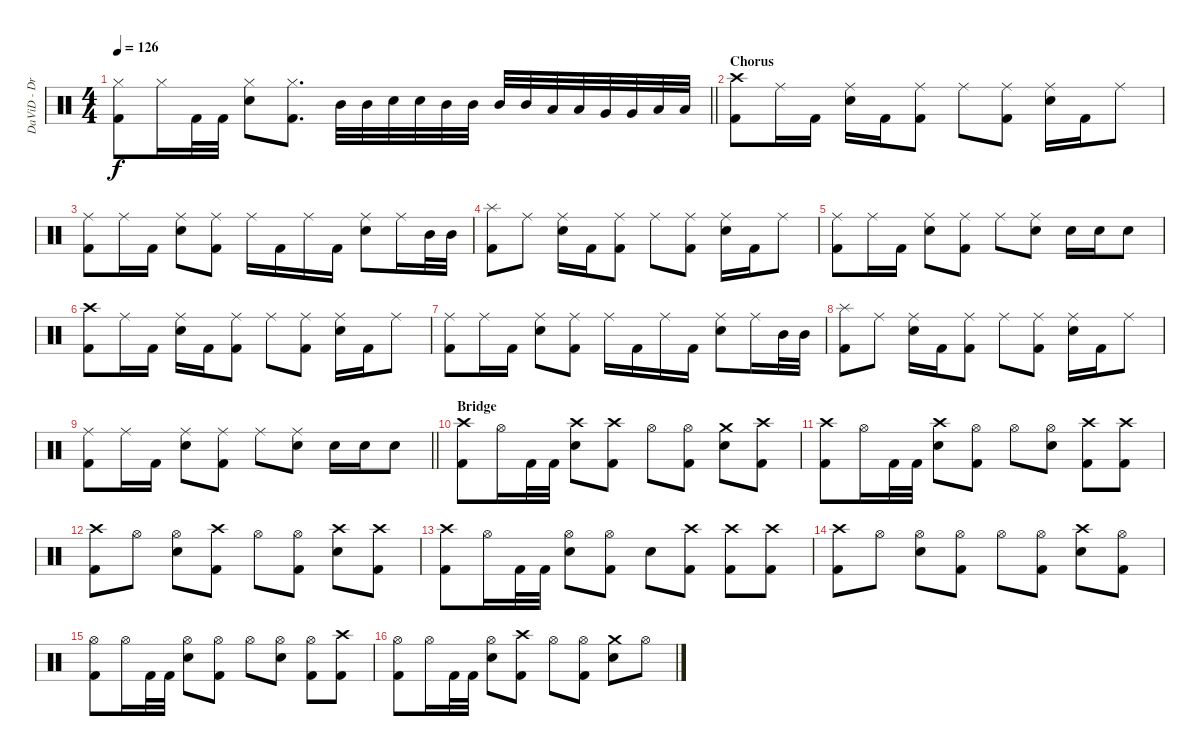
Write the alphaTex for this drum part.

\track ("DaViD - DruMzZ" "DaViD - Dr") {instrument percussion}
\staff {score}
\articulation defaults
\ts (4 4)
\tempo 126
\clef neutral
\barLineRight lightlight
\ks c
("Hi-Hat (closed)" "Kick (hit) 2").8{dy f} "Hi-Hat (closed)".16 "Kick (hit) 2".32 "Kick (hit) 2".32 ("Hi-Hat (closed)" "Snare (hit) 2").8 ("Hi-Hat (closed)" "Kick (hit) 2").8{d} "Mid Tom (hit)".32 "Mid Tom (hit)".32 "Snare (hit) 2".32 "Snare (hit) 2".32 "Mid Tom (hit)".32 "Mid Tom (hit)".32 "Mid Tom (hit)".32 "Mid Tom (hit)".32 "Low Tom (hit)".32 "Low Tom (hit)".32 "Very Low Tom (hit)".32 "Very Low Tom (hit)".32 "Low Floor Tom (hit)".32 "Low Floor Tom (hit)".32 |
\section ("" "Chorus")
("Crash high (hit)" "Kick (hit) 2").8 "Ride (middle)".16 "Kick (hit) 2".16 ("Ride (middle)" "Snare (hit) 2").16 "Kick (hit) 2".16 ("Ride (middle)" "Kick (hit) 2").8 "Ride (middle)".8 ("Ride (middle)" "Kick (hit) 2").8 ("Ride (middle)" "Snare (hit) 2").16 "Kick (hit) 2".16 "Ride (middle)".8 |
("Ride (middle)" "Kick (hit) 2").8 "Ride (middle)".16 "Kick (hit) 2".16 ("Ride (middle)" "Snare (hit) 2").8 ("Ride (middle)" "Kick (hit) 2").8 "Ride (middle)".16 "Kick (hit) 2".16 "Ride (middle)".16 "Kick (hit) 2".16 ("Ride (middle)" "Snare (hit) 2").8 "Ride (middle)".16 "Mid Tom (hit)".32 "Mid Tom (hit)".32 |
("Splash (hit)" "Kick (hit) 2").8 "Ride (middle)".8 ("Ride (middle)" "Snare (hit) 2").16 "Kick (hit) 2".16 ("Ride (middle)" "Kick (hit) 2").8 "Ride (middle)".8 ("Ride (middle)" "Kick (hit) 2").8 ("Ride (middle)" "Snare (hit) 2").16 "Kick (hit) 2".16 "Ride (middle)".8 |
("Ride (middle)" "Kick (hit) 2").8 "Ride (middle)".16 "Kick (hit) 2".16 ("Ride (middle)" "Snare (hit) 2").8 ("Ride (middle)" "Kick (hit) 2").8 "Ride (middle)".8 ("Ride (middle)" "Snare (hit) 2").8 "Snare (hit) 2".16 "Snare (hit) 2".16 "Snare (hit) 2".8 |
("Crash high (hit)" "Kick (hit) 2").8 "Ride (middle)".16 "Kick (hit) 2".16 ("Ride (middle)" "Snare (hit) 2").16 "Kick (hit) 2".16 ("Ride (middle)" "Kick (hit) 2").8 "Ride (middle)".8 ("Ride (middle)" "Kick (hit) 2").8 ("Ride (middle)" "Snare (hit) 2").16 "Kick (hit) 2".16 "Ride (middle)".8 |
("Ride (middle)" "Kick (hit) 2").8 "Ride (middle)".16 "Kick (hit) 2".16 ("Ride (middle)" "Snare (hit) 2").8 ("Ride (middle)" "Kick (hit) 2").8 "Ride (middle)".16 "Kick (hit) 2".16 "Ride (middle)".16 "Kick (hit) 2".16 ("Ride (middle)" "Snare (hit) 2").8 "Ride (middle)".16 "Mid Tom (hit)".32 "Mid Tom (hit)".32 |
("Splash (hit)" "Kick (hit) 2").8 "Ride (middle)".8 ("Ride (middle)" "Snare (hit) 2").16 "Kick (hit) 2".16 ("Ride (middle)" "Kick (hit) 2").8 "Ride (middle)".8 ("Ride (middle)" "Kick (hit) 2").8 ("Ride (middle)" "Snare (hit) 2").16 "Kick (hit) 2".16 "Ride (middle)".8 |
\barLineRight lightlight
("Ride (middle)" "Kick (hit) 2").8 "Ride (middle)".16 "Kick (hit) 2".16 ("Ride (middle)" "Snare (hit) 2").8 ("Ride (middle)" "Kick (hit) 2").8 "Ride (middle)".8 ("Ride (middle)" "Snare (hit) 2").8 "Snare (hit) 2".16 "Snare (hit) 2".16 "Snare (hit) 2".8 |
\section ("" "Bridge")
("Crash high (hit)" "Kick (hit) 2").8 "Hi-Hat (open)".16 "Kick (hit) 2".32 "Kick (hit) 2".32 ("Crash high (hit)" "Snare (hit) 2").8 ("Crash high (hit)" "Kick (hit) 2").8 "Hi-Hat (open)".8 ("Hi-Hat (open)" "Kick (hit) 2").8 ("Crash medium (hit)" "Snare (hit) 2").8 ("Crash high (hit)" "Kick (hit) 2").8 |
("Crash high (hit)" "Kick (hit) 2").8 "Hi-Hat (open)".16 "Kick (hit) 2".32 "Kick (hit) 2".32 ("Crash high (hit)" "Snare (hit) 2").8 ("Hi-Hat (open)" "Kick (hit) 2").8 "Hi-Hat (open)".8 ("Hi-Hat (open)" "Snare (hit) 2").8 ("Crash high (hit)" "Kick (hit) 2").8 ("Crash high (hit)" "Kick (hit) 2").8 |
("Crash high (hit)" "Kick (hit) 2").8 "Hi-Hat (open)".8 ("Hi-Hat (open)" "Snare (hit) 2").8 ("Crash high (hit)" "Kick (hit) 2").8 "Hi-Hat (open)".8 ("Hi-Hat (open)" "Kick (hit) 2").8 ("Crash high (hit)" "Snare (hit) 2").8 ("Crash high (hit)" "Kick (hit) 2").8 |
("Crash high (hit)" "Kick (hit) 2").8 "Hi-Hat (open)".16 "Kick (hit) 2".32 "Kick (hit) 2".32 ("Hi-Hat (open)" "Snare (hit) 2").8 ("Hi-Hat (open)" "Kick (hit) 2").8 "Snare (hit) 2".8 ("Crash high (hit)" "Kick (hit) 2").8 ("Crash high (hit)" "Kick (hit) 2").8 ("Crash high (hit)" "Kick (hit) 2").8 |
("Crash high (hit)" "Kick (hit) 2").8 "Hi-Hat (open)".8 ("Hi-Hat (open)" "Snare (hit) 2").8 ("Hi-Hat (open)" "Kick (hit) 2").8 "Hi-Hat (open)".8 ("Hi-Hat (open)" "Kick (hit) 2").8 ("Crash high (hit)" "Snare (hit) 2").8 ("Hi-Hat (open)" "Kick (hit) 2").8 |
("Hi-Hat (open)" "Kick (hit) 2").8 "Hi-Hat (open)".16 "Kick (hit) 2".32 "Kick (hit) 2".32 ("Hi-Hat (open)" "Snare (hit) 2").8 ("Hi-Hat (open)" "Kick (hit) 2").8 "Hi-Hat (open)".8 ("Hi-Hat (open)" "Snare (hit) 2").8 ("Hi-Hat (open)" "Kick (hit) 2").8 ("Crash high (hit)" "Kick (hit) 2").8 |
("Hi-Hat (open)" "Kick (hit) 2").8 "Hi-Hat (open)".16 "Kick (hit) 2".32 "Kick (hit) 2".32 ("Hi-Hat (open)" "Snare (hit) 2").8 ("Crash high (hit)" "Kick (hit) 2").8 "Hi-Hat (open)".8 ("Hi-Hat (open)" "Kick (hit) 2").8 ("Crash medium (hit)" "Snare (hit) 2").8 "Hi-Hat (open)".8
